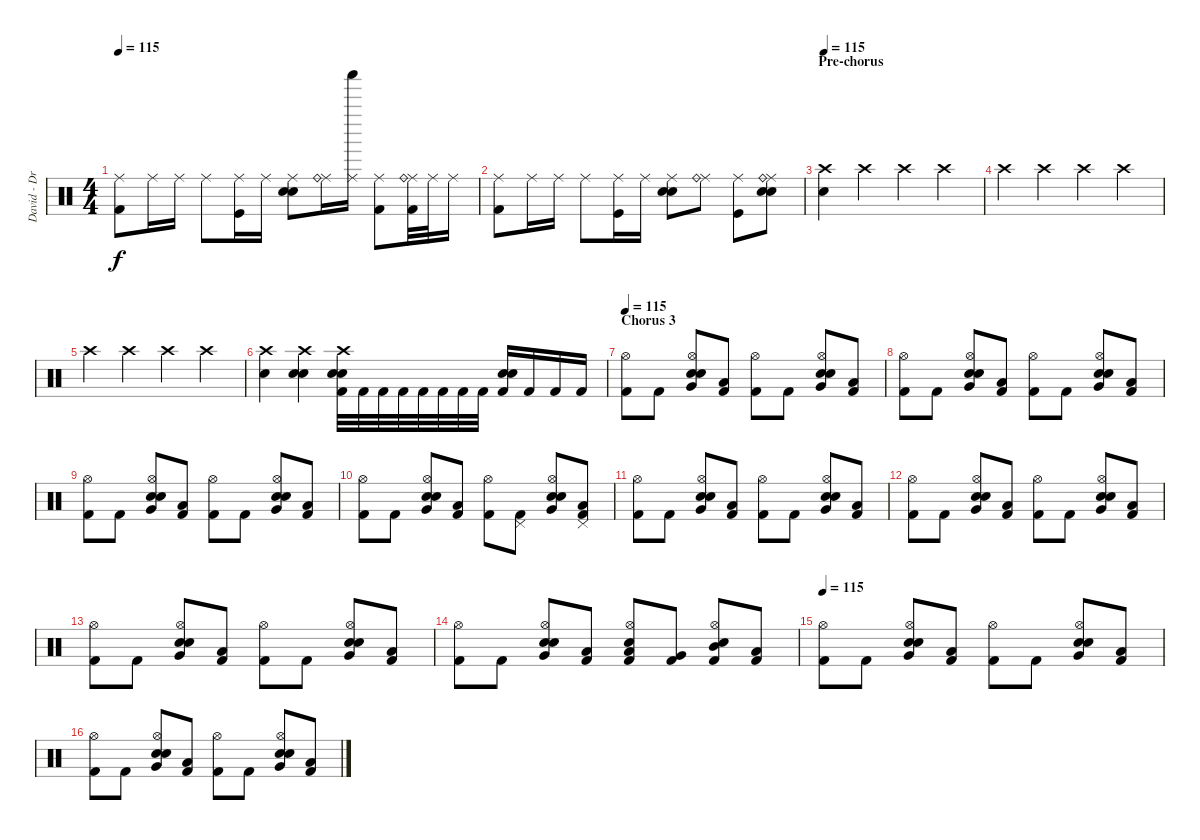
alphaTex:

\track ("David - Drums" "David - Dr") {instrument percussion}
\staff {score}
\articulation defaults
\ts (4 4)
\tempo 115
\clef neutral
\ks c
("Ride (middle)" "Kick (hit) 2").8{dy f} "Ride (middle)".16 "Ride (middle)".16 "Ride (middle)".8 ("Ride (middle)" "Kick (hit)").16 "Ride (middle)".16 ("Ride (middle)" "Electric Snare (hit)" "Snare (hit) 2").8 ("Ride (middle)" "Ride (bell)").16 ("Ride (middle)" "Shaker (hit)").16 ("Ride (middle)" "Kick (hit) 2").8 ("Ride (middle)" "Ride (bell)" "Kick (hit) 2").32 "Ride (middle)".32 "Ride (middle)".16 |
("Ride (middle)" "Kick (hit) 2").8 "Ride (middle)".16 "Ride (middle)".16 "Ride (middle)".8 ("Ride (middle)" "Kick (hit)").16 "Ride (middle)".16 ("Ride (middle)" "Electric Snare (hit)" "Snare (hit) 2").8 ("Ride (middle)" "Ride (bell)").8 ("Ride (middle)" "Kick (hit)").8 ("Ride (middle)" "Ride (bell)" "Electric Snare (hit)" "Snare (hit) 2").8 |
\section ("" "Pre-chorus")
\tempo 115
("Crash high (hit)" "Electric Snare (hit)").4 "Crash high (hit)".4 "Crash high (hit)".4 "Crash high (hit)".4 |
"Crash high (hit)".4 "Crash high (hit)".4 "Crash high (hit)".4 "Crash high (hit)".4 |
"Crash high (hit)".4 "Crash high (hit)".4 "Crash high (hit)".4 "Crash high (hit)".4 |
("Crash high (hit)" "Electric Snare (hit)").4 ("Crash high (hit)" "Electric Snare (hit)" "Snare (hit) 2").4{bd 240} ("Crash high (hit)" "Electric Snare (hit)" "Snare (hit) 2" "Kick (hit) 2").32 "Kick (hit) 2".32 "Kick (hit) 2".32 "Kick (hit) 2".32 "Kick (hit) 2".32 "Kick (hit) 2".32 "Kick (hit) 2".32 "Kick (hit) 2".32 ("Electric Snare (hit)" "Snare (hit) 2" "Kick (hit) 2").16 "Kick (hit) 2".16 "Kick (hit) 2".16 "Kick (hit) 2".16 |
\section ("" "Chorus 3")
\tempo 115
("Hi-Hat (open)" "Kick (hit) 2").8 "Kick (hit) 2".8 ("Hi-Hat (open)" "Very Low Tom (hit)" "Electric Snare (hit)" "Snare (hit) 2").8 ("Low Floor Tom (hit)" "Kick (hit) 2").8 ("Hi-Hat (open)" "Kick (hit) 2").8 "Kick (hit) 2".8 ("Hi-Hat (open)" "Very Low Tom (hit)" "Electric Snare (hit)" "Snare (hit) 2").8 ("Low Floor Tom (hit)" "Kick (hit) 2").8 |
("Hi-Hat (open)" "Kick (hit) 2").8 "Kick (hit) 2".8 ("Hi-Hat (open)" "Very Low Tom (hit)" "Electric Snare (hit)" "Snare (hit) 2").8 ("Low Floor Tom (hit)" "Kick (hit) 2").8 ("Hi-Hat (open)" "Kick (hit) 2").8 "Kick (hit) 2".8 ("Hi-Hat (open)" "Very Low Tom (hit)" "Electric Snare (hit)" "Snare (hit) 2").8 ("Low Floor Tom (hit)" "Kick (hit) 2").8 |
("Hi-Hat (open)" "Kick (hit) 2").8 "Kick (hit) 2".8 ("Hi-Hat (open)" "Very Low Tom (hit)" "Electric Snare (hit)" "Snare (hit) 2").8 ("Low Floor Tom (hit)" "Kick (hit) 2").8 ("Hi-Hat (open)" "Kick (hit) 2").8 "Kick (hit) 2".8 ("Hi-Hat (open)" "Very Low Tom (hit)" "Electric Snare (hit)" "Snare (hit) 2").8 ("Low Floor Tom (hit)" "Kick (hit) 2").8 |
("Hi-Hat (open)" "Kick (hit) 2").8 "Kick (hit) 2".8 ("Hi-Hat (open)" "Very Low Tom (hit)" "Electric Snare (hit)" "Snare (hit) 2").8 ("Low Floor Tom (hit)" "Kick (hit) 2").8 ("Hi-Hat (open)" "Kick (hit) 2").8 ("Pedal Hi-Hat (hit)" "Kick (hit) 2").8 ("Hi-Hat (open)" "Very Low Tom (hit)" "Electric Snare (hit)" "Snare (hit) 2").8 ("Pedal Hi-Hat (hit)" "Low Floor Tom (hit)" "Kick (hit) 2").8 |
("Hi-Hat (open)" "Kick (hit) 2").8 "Kick (hit) 2".8 ("Hi-Hat (open)" "Very Low Tom (hit)" "Electric Snare (hit)" "Snare (hit) 2").8 ("Low Floor Tom (hit)" "Kick (hit) 2").8 ("Hi-Hat (open)" "Kick (hit) 2").8 "Kick (hit) 2".8 ("Hi-Hat (open)" "Very Low Tom (hit)" "Electric Snare (hit)" "Snare (hit) 2").8 ("Low Floor Tom (hit)" "Kick (hit) 2").8 |
("Hi-Hat (open)" "Kick (hit) 2").8 "Kick (hit) 2".8 ("Hi-Hat (open)" "Very Low Tom (hit)" "Electric Snare (hit)" "Snare (hit) 2").8 ("Low Floor Tom (hit)" "Kick (hit) 2").8 ("Hi-Hat (open)" "Kick (hit) 2").8 "Kick (hit) 2".8 ("Hi-Hat (open)" "Very Low Tom (hit)" "Electric Snare (hit)" "Snare (hit) 2").8 ("Low Floor Tom (hit)" "Kick (hit) 2").8 |
("Hi-Hat (open)" "Kick (hit) 2").8 "Kick (hit) 2".8 ("Hi-Hat (open)" "Very Low Tom (hit)" "Electric Snare (hit)" "Snare (hit) 2").8 ("Low Floor Tom (hit)" "Kick (hit) 2").8 ("Hi-Hat (open)" "Kick (hit) 2").8 "Kick (hit) 2".8 ("Hi-Hat (open)" "Very Low Tom (hit)" "Electric Snare (hit)" "Snare (hit) 2").8 ("Low Floor Tom (hit)" "Kick (hit) 2").8 |
("Hi-Hat (open)" "Kick (hit) 2").8 "Kick (hit) 2".8 ("Hi-Hat (open)" "Very Low Tom (hit)" "Electric Snare (hit)" "Snare (hit) 2").8 ("Low Floor Tom (hit)" "Kick (hit) 2").8 ("Hi-Hat (open)" "Low Tom (hit)" "Electric Snare (hit)" "Kick (hit) 2").8 ("Very Low Tom (hit)" "Kick (hit) 2").8 ("Hi-Hat (open)" "Mid Tom (hit)" "Electric Snare (hit)" "Kick (hit) 2").8 ("Low Tom (hit)" "Kick (hit) 2").8 |
\tempo 115
("Hi-Hat (open)" "Kick (hit) 2").8 "Kick (hit) 2".8 ("Hi-Hat (open)" "Very Low Tom (hit)" "Electric Snare (hit)" "Snare (hit) 2").8 ("Low Floor Tom (hit)" "Kick (hit) 2").8 ("Hi-Hat (open)" "Kick (hit) 2").8 "Kick (hit) 2".8 ("Hi-Hat (open)" "Very Low Tom (hit)" "Electric Snare (hit)" "Snare (hit) 2").8 ("Low Floor Tom (hit)" "Kick (hit) 2").8 |
("Hi-Hat (open)" "Kick (hit) 2").8 "Kick (hit) 2".8 ("Hi-Hat (open)" "Very Low Tom (hit)" "Electric Snare (hit)" "Snare (hit) 2").8 ("Low Floor Tom (hit)" "Kick (hit) 2").8 ("Hi-Hat (open)" "Kick (hit) 2").8 "Kick (hit) 2".8 ("Hi-Hat (open)" "Very Low Tom (hit)" "Electric Snare (hit)" "Snare (hit) 2").8 ("Low Floor Tom (hit)" "Kick (hit) 2").8
